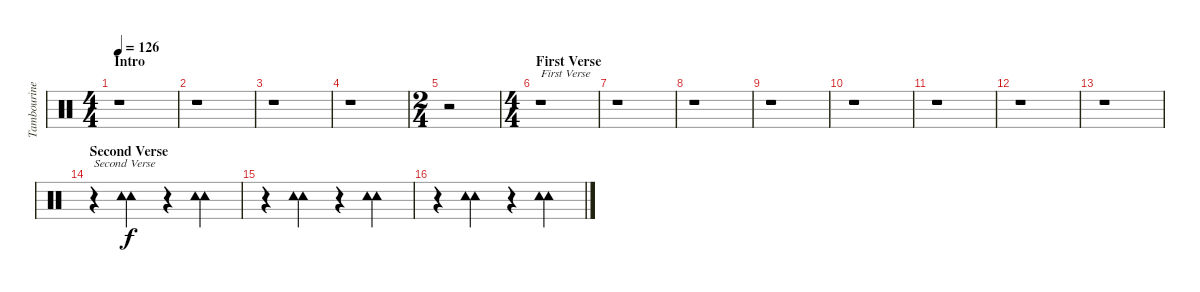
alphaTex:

\track ("Tambourine" "Tambourine") {instrument percussion}
\staff {score}
\articulation defaults
\ts (4 4)
\section ("" "Intro")
\tempo 126
\clef neutral
\ks c
r.1{dy f} |
r.1 |
r.1 |
r.1 |
\ts (2 4)
r.2 |
\ts (4 4)
\section ("" "First Verse")
r.1{txt "First Verse"} |
r.1 |
r.1 |
r.1 |
r.1 |
r.1 |
r.1 |
r.1 |
\section ("" "Second Verse")
r.4{txt "Second Verse"} ("Tambourine (hit)" "Tambourine (hit)").4 r.4 ("Tambourine (hit)" "Tambourine (hit)").4 |
r.4 ("Tambourine (hit)" "Tambourine (hit)").4 r.4 ("Tambourine (hit)" "Tambourine (hit)").4 |
r.4 ("Tambourine (hit)" "Tambourine (hit)").4 r.4 ("Tambourine (hit)" "Tambourine (hit)").4
